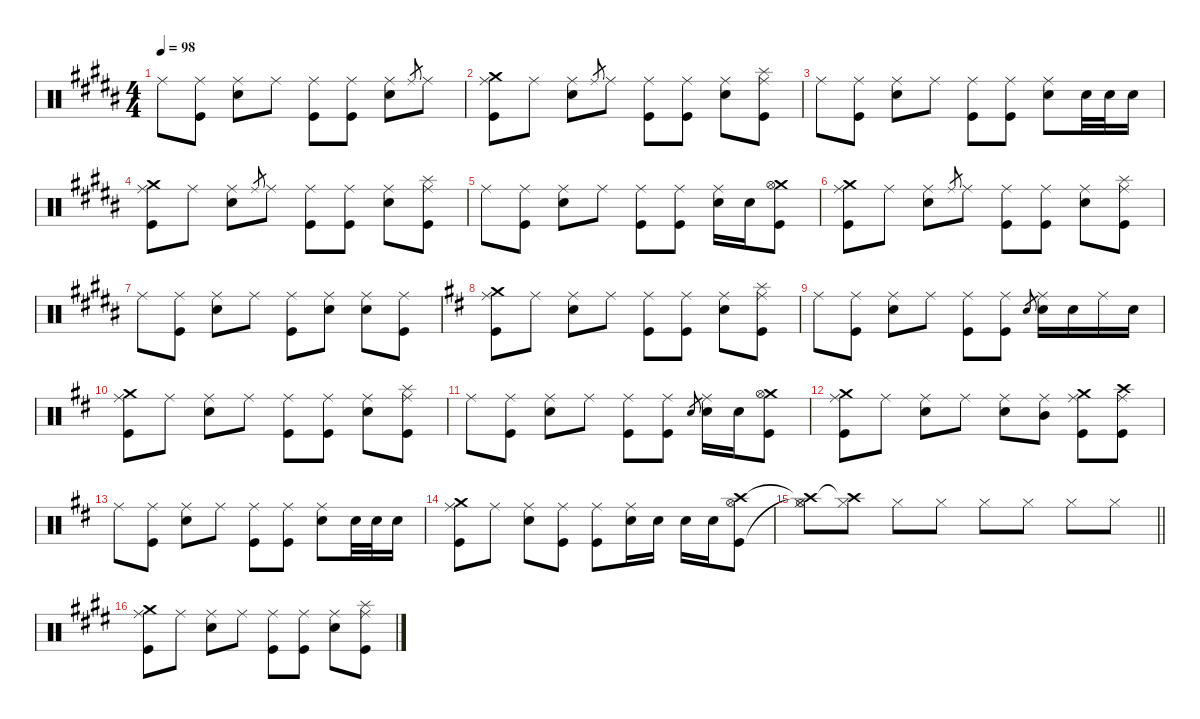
\defaultSystemsLayout 4
\hideDynamics
\bracketExtendMode nobrackets
\singleTrackTrackNamePolicy hidden
\multiTrackTrackNamePolicy hidden
\firstSystemTrackNameMode fullname
\otherSystemsTrackNameOrientation horizontal
\track ("Drums" "drm.") {instrument percussion}
\staff {score}
\articulation defaults
\ts (4 4)
\tempo 98
\clef neutral
\ks g#minor "Ride (middle)"{acc bb}.8{dy f beam Down}
("Ride (middle)"{acc bb} "Kick (hit)"{acc bb}).8{beam Down} ("Ride (middle)"{acc bb} "Snare (hit) 2"{acc bb}).8{beam Down} "Ride (middle)"{acc bb}.8{beam Down} ("Ride (middle)"{acc bb} "Kick (hit)"{acc bb}).8{beam Down} ("Ride (middle)"{acc bb} "Kick (hit)"{acc bb}).8{beam Down} ("Ride (middle)"{acc bb} "Snare (hit) 2"{acc bb}).8{beam Down} "Ride (middle)"{acc bb}.8{gr dy mf beam Up} "Ride (middle)"{acc bb}.8{dy f beam Down} |
("Crash medium (hit)"{acc bb} "Ride (middle)"{acc bb} "Kick (hit)"{acc bb}).8{dy mf beam Down} "Ride (middle)"{acc bb}.8{dy f beam Down} ("Ride (middle)"{acc bb} "Snare (hit) 2"{acc bb}).8{beam Down} "Ride (middle)"{acc bb}.8{gr dy mf beam Up} "Ride (middle)"{acc bb}.8{dy f beam Down} ("Ride (middle)"{acc bb} "Kick (hit)"{acc bb}).8{beam Down} ("Ride (middle)"{acc bb} "Kick (hit)"{acc bb}).8{beam Down} ("Ride (middle)"{acc bb} "Snare (hit) 2"{acc bb}).8{beam Down} ("Splash (hit)"{acc bb} "Ride (middle)"{acc bb} "Kick (hit)"{acc bb}).8{dy mp beam Down} |
"Ride (middle)"{acc bb}.8{dy f beam Down} ("Ride (middle)"{acc bb} "Kick (hit)"{acc bb}).8{beam Down} ("Ride (middle)"{acc bb} "Snare (hit) 2"{acc bb}).8{beam Down} "Ride (middle)"{acc bb}.8{beam Down} ("Ride (middle)"{acc bb} "Kick (hit)"{acc bb}).8{beam Down} ("Ride (middle)"{acc bb} "Kick (hit)"{acc bb}).8{beam Down} ("Ride (middle)"{acc bb} "Snare (hit) 2"{acc bb}).8{beam Down} "Snare (hit) 2"{acc bb}.32{dy mp beam Down} "Snare (hit) 2"{acc bb}.32{dy mf beam Down} "Snare (hit) 2"{acc bb}.16{dy f beam Down} |
("Crash medium (hit)"{acc bb} "Ride (middle)"{acc bb} "Kick (hit)"{acc bb}).8{dy mf beam Down} "Ride (middle)"{acc bb}.8{dy f beam Down} ("Ride (middle)"{acc bb} "Snare (hit) 2"{acc bb}).8{beam Down} "Ride (middle)"{acc bb}.8{gr dy mf beam Up} "Ride (middle)"{acc bb}.8{dy f beam Down} ("Ride (middle)"{acc bb} "Kick (hit)"{acc bb}).8{beam Down} ("Ride (middle)"{acc bb} "Kick (hit)"{acc bb}).8{beam Down} ("Ride (middle)"{acc bb} "Snare (hit) 2"{acc bb}).8{beam Down} ("Splash (hit)"{acc bb} "Ride (middle)"{acc bb} "Kick (hit)"{acc bb}).8{dy mp beam Down} |
"Ride (middle)"{acc bb}.8{dy f beam Down} ("Ride (middle)"{acc bb} "Kick (hit)"{acc bb}).8{beam Down} ("Ride (middle)"{acc bb} "Snare (hit) 2"{acc bb}).8{beam Down} "Ride (middle)"{acc bb}.8{beam Down} ("Ride (middle)"{acc bb} "Kick (hit)"{acc bb}).8{beam Down} ("Ride (middle)"{acc bb} "Kick (hit)"{acc bb}).8{beam Down} ("Ride (middle)"{acc bb} "Snare (hit) 2"{acc bb}).16{beam Down} "Snare (hit) 2"{acc bb}.16{beam Down} ("Crash medium (hit)"{acc bb} "Hi-Hat (open)"{acc bb} "Kick (hit)"{acc bb}).8{dy mf beam Down} |
("Crash medium (hit)"{acc bb} "Ride (middle)"{acc bb} "Kick (hit)"{acc bb}).8{beam Down} "Ride (middle)"{acc bb}.8{dy f beam Down} ("Ride (middle)"{acc bb} "Snare (hit) 2"{acc bb}).8{beam Down} "Ride (middle)"{acc bb}.8{gr dy mf beam Up} "Ride (middle)"{acc bb}.8{dy f beam Down} ("Ride (middle)"{acc bb} "Kick (hit)"{acc bb}).8{beam Down} ("Ride (middle)"{acc bb} "Kick (hit)"{acc bb}).8{beam Down} ("Ride (middle)"{acc bb} "Snare (hit) 2"{acc bb}).8{beam Down} ("Splash (hit)"{acc bb} "Ride (middle)"{acc bb} "Kick (hit)"{acc bb}).8{dy mp beam Down} |
"Ride (middle)"{acc bb}.8{dy f beam Down} ("Ride (middle)"{acc bb} "Kick (hit)"{acc bb}).8{beam Down} ("Ride (middle)"{acc bb} "Snare (hit) 2"{acc bb}).8{beam Down} "Ride (middle)"{acc bb}.8{beam Down} ("Ride (middle)"{acc bb} "Kick (hit)"{acc bb}).8{beam Down} ("Ride (middle)"{acc bb} "Snare (hit) 2"{acc bb}).8{beam Down} ("Ride (middle)"{acc bb} "Snare (hit) 2"{acc bb}).8{beam Down} ("Ride (middle)"{acc bb} "Kick (hit)"{acc bb}).8{beam Down} |
\ks d
("Crash medium (hit)"{acc forcenatural} "Ride (middle)"{acc forcenatural} "Kick (hit)"{acc forcenatural}).8{dy mf beam Down} "Ride (middle)"{acc forcenatural}.8{dy f beam Down} ("Ride (middle)"{acc forcenatural} "Snare (hit) 2"{acc forcenatural}).8{beam Down} "Ride (middle)"{acc forcenatural}.8{beam Down} ("Ride (middle)"{acc forcenatural} "Kick (hit)"{acc forcenatural}).8{beam Down} ("Ride (middle)"{acc forcenatural} "Kick (hit)"{acc forcenatural}).8{beam Down} ("Ride (middle)"{acc forcenatural} "Snare (hit) 2"{acc forcenatural}).8{beam Down} ("Splash (hit)"{acc forcenatural} "Ride (middle)"{acc forcenatural} "Kick (hit)"{acc forcenatural}).8{dy mp beam Down} |
"Ride (middle)"{acc forcenatural}.8{dy f beam Down} ("Ride (middle)"{acc forcenatural} "Kick (hit)"{acc forcenatural}).8{beam Down} ("Ride (middle)"{acc forcenatural} "Snare (hit) 2"{acc forcenatural}).8{beam Down} "Ride (middle)"{acc forcenatural}.8{beam Down} ("Ride (middle)"{acc forcenatural} "Kick (hit)"{acc forcenatural}).8{beam Down} ("Ride (middle)"{acc forcenatural} "Kick (hit)"{acc forcenatural}).8{beam Down} "Electric Snare (hit)"{acc forcenatural}.8{gr dy p beam Up} ("Ride (middle)"{acc forcenatural} "Snare (hit) 2"{acc forcenatural}).16{dy f beam Down} "Snare (hit) 2"{acc forcenatural}.16{beam Down} "Ride (middle)"{acc forcenatural}.16{beam Down} "Snare (hit) 2"{acc forcenatural}.16{beam Down} |
("Crash medium (hit)"{acc forcenatural} "Ride (middle)"{acc forcenatural} "Kick (hit)"{acc forcenatural}).8{dy mf beam Down} "Ride (middle)"{acc forcenatural}.8{dy f beam Down} ("Ride (middle)"{acc forcenatural} "Snare (hit) 2"{acc forcenatural}).8{beam Down} "Ride (middle)"{acc forcenatural}.8{beam Down} ("Ride (middle)"{acc forcenatural} "Kick (hit)"{acc forcenatural}).8{beam Down} ("Ride (middle)"{acc forcenatural} "Kick (hit)"{acc forcenatural}).8{beam Down} ("Ride (middle)"{acc forcenatural} "Snare (hit) 2"{acc forcenatural}).8{beam Down} ("Splash (hit)"{acc forcenatural} "Ride (middle)"{acc forcenatural} "Kick (hit)"{acc forcenatural}).8{dy mp beam Down} |
"Ride (middle)"{acc forcenatural}.8{dy f beam Down} ("Ride (middle)"{acc forcenatural} "Kick (hit)"{acc forcenatural}).8{beam Down} ("Ride (middle)"{acc forcenatural} "Snare (hit) 2"{acc forcenatural}).8{beam Down} "Ride (middle)"{acc forcenatural}.8{beam Down} ("Ride (middle)"{acc forcenatural} "Kick (hit)"{acc forcenatural}).8{beam Down} ("Ride (middle)"{acc forcenatural} "Kick (hit)"{acc forcenatural}).8{beam Down} "Electric Snare (hit)"{acc forcenatural}.8{gr dy mp beam Up} ("Ride (middle)"{acc forcenatural} "Snare (hit) 2"{acc forcenatural}).16{dy f beam Down} "Snare (hit) 2"{acc forcenatural}.16{beam Down} ("Crash medium (hit)"{acc forcenatural} "Hi-Hat (open)"{acc forcenatural} "Kick (hit)"{acc forcenatural}).8{dy mf beam Down} |
("Crash medium (hit)"{acc forcenatural} "Ride (middle)"{acc forcenatural} "Kick (hit)"{acc forcenatural}).8{beam Down} "Ride (middle)"{acc forcenatural}.8{dy f beam Down} ("Ride (middle)"{acc forcenatural} "Snare (hit) 2"{acc forcenatural}).8{beam Down} "Ride (middle)"{acc forcenatural}.8{beam Down} ("Ride (middle)"{acc forcenatural} "Snare (hit) 2"{acc forcenatural}).8{beam Down} ("Ride (middle)"{acc forcenatural} "Mid Tom (hit)"{acc forcenatural}).8{beam Down} ("Crash medium (hit)"{acc forcenatural} "Ride (middle)"{acc forcenatural} "Kick (hit)"{acc forcenatural}).8{dy mf beam Down} ("Crash high (hit)"{acc forcenatural} "Ride (middle)"{acc forcenatural} "Kick (hit)"{acc forcenatural}).8{beam Down} |
"Ride (middle)"{acc forcenatural}.8{dy f beam Down} ("Ride (middle)"{acc forcenatural} "Kick (hit)"{acc forcenatural}).8{beam Down} ("Ride (middle)"{acc forcenatural} "Snare (hit) 2"{acc forcenatural}).8{beam Down} "Ride (middle)"{acc forcenatural}.8{beam Down} ("Ride (middle)"{acc forcenatural} "Kick (hit)"{acc forcenatural}).8{beam Down} ("Ride (middle)"{acc forcenatural} "Kick (hit)"{acc forcenatural}).8{beam Down} ("Ride (middle)"{acc forcenatural} "Snare (hit) 2"{acc forcenatural}).8{beam Down} "Snare (hit) 2"{acc forcenatural}.32{dy mp beam Down} "Snare (hit) 2"{acc forcenatural}.32{dy mf beam Down} "Snare (hit) 2"{acc forcenatural}.16{dy f beam Down} |
("Crash medium (hit)"{acc forcenatural} "Ride (middle)"{acc forcenatural} "Kick (hit)"{acc forcenatural}).8{dy mf beam Down} "Ride (middle)"{acc forcenatural}.8{dy f beam Down} ("Ride (middle)"{acc forcenatural} "Snare (hit) 2"{acc forcenatural}).8{beam Down} ("Ride (middle)"{acc forcenatural} "Kick (hit)"{acc forcenatural}).8{beam Down} ("Ride (middle)"{acc forcenatural} "Kick (hit)"{acc forcenatural}).8{beam Down} ("Ride (middle)"{acc forcenatural} "Snare (hit) 2"{acc forcenatural}).16{beam Down} "Snare (hit) 2"{acc forcenatural}.16{dy mf beam Down} "Snare (hit) 2"{acc forcenatural}.16{beam Down} "Snare (hit) 2"{acc forcenatural}.16{beam Down} ("Crash high (hit)"{acc forcenatural} "Hi-Hat (open)"{acc forcenatural} "Kick (hit)"{acc forcenatural}).8{beam Down} |
\barLineRight lightlight
("Crash high (hit)"{t acc forcenatural} "Hi-Hat (closed)"{acc forcenatural} "Hi-Hat (open)"{t acc forcenatural}).8{dy f beam Down} ("Crash high (hit)"{t acc forcenatural} "Hi-Hat (closed)"{acc forcenatural}).8{beam Down} "Hi-Hat (closed)"{acc forcenatural}.8{dy p beam Down} "Hi-Hat (closed)"{acc forcenatural}.8{beam Down} "Hi-Hat (closed)"{acc forcenatural}.8{beam Down} "Hi-Hat (closed)"{acc forcenatural}.8{beam Down} "Hi-Hat (closed)"{acc forcenatural}.8{beam Down} "Hi-Hat (closed)"{acc forcenatural}.8{beam Down} |
\ks c#minor
("Crash medium (hit)"{acc forcenatural} "Ride (middle)"{acc forcenatural} "Kick (hit)"{acc forcenatural}).8{dy mf beam Down} "Ride (middle)"{acc forcenatural}.8{dy f beam Down} ("Ride (middle)"{acc forcenatural} "Snare (hit) 2"{acc forcenatural}).8{beam Down} "Ride (middle)"{acc forcenatural}.8{beam Down} ("Ride (middle)"{acc forcenatural} "Kick (hit)"{acc forcenatural}).8{beam Down} ("Ride (middle)"{acc forcenatural} "Kick (hit)"{acc forcenatural}).8{beam Down} ("Ride (middle)"{acc forcenatural} "Snare (hit) 2"{acc forcenatural}).8{beam Down} ("Splash (hit)"{acc forcenatural} "Ride (middle)"{acc forcenatural} "Kick (hit)"{acc forcenatural}).8{dy mp beam Down}
